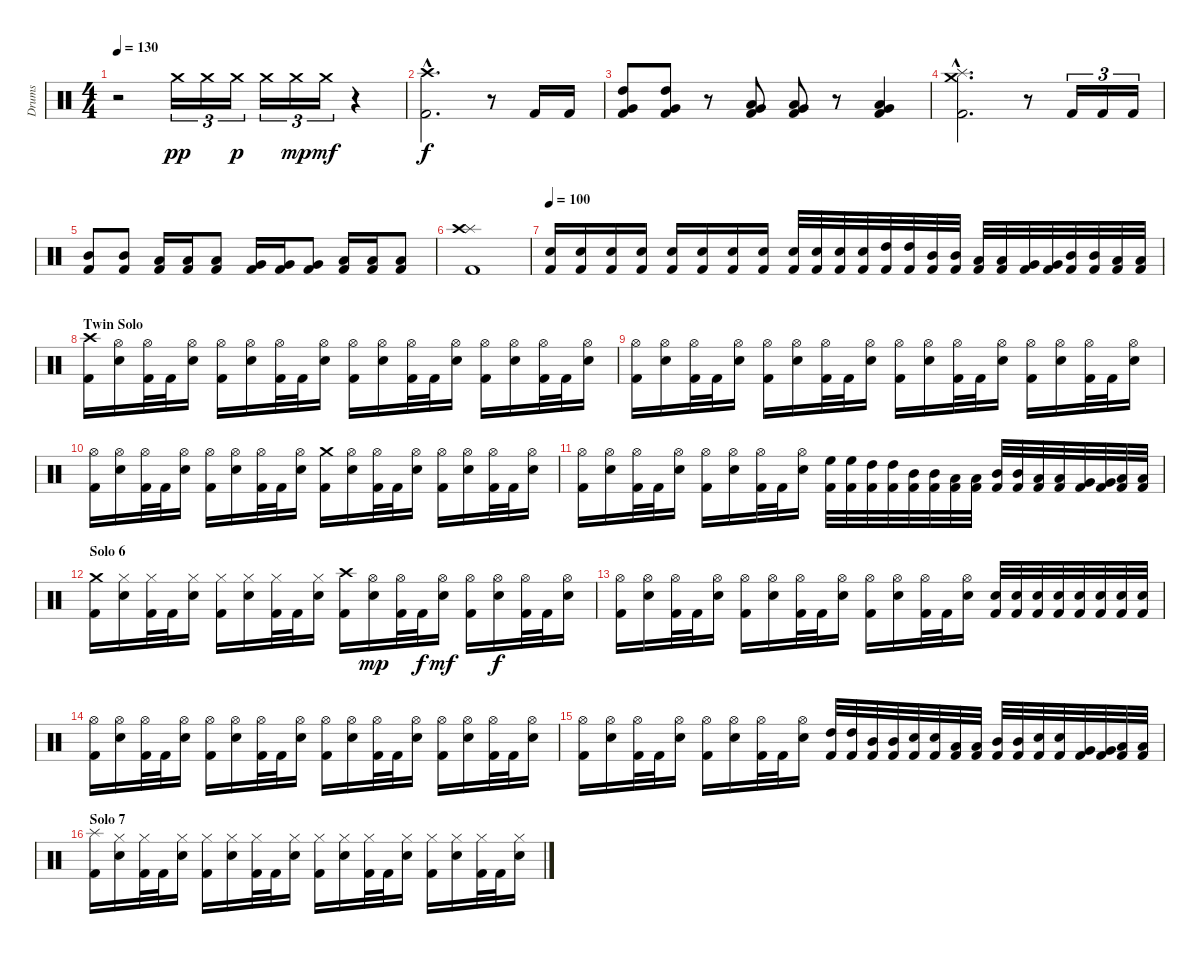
\track ("Drums" "Drums") {instrument percussion}
\staff {score}
\articulation defaults
\ts (4 4)
\tempo 130
\clef neutral
\ks c
r.2{dy f} "Crash medium (hit)".16{tu (3 2) dy pp} "Crash medium (hit)".16{tu (3 2)} "Crash medium (hit)".16{tu (3 2) dy p} "Crash medium (hit)".16{tu (3 2)} "Crash medium (hit)".16{tu (3 2) dy mp} "Crash medium (hit)".16{tu (3 2) dy mf} r.4 |
("Kick (hit) 2"{hac} "Crash high (hit)"{hac}).2{d dy f} r.8 "Kick (hit) 2".16 "Kick (hit) 2".16 |
("Kick (hit) 2" "Very Low Tom (hit)" "High Tom (hit)").8 ("Kick (hit) 2" "Very Low Tom (hit)" "High Tom (hit)").8 r.8 ("Kick (hit) 2" "Very Low Tom (hit)" "Low Tom (hit)").8 ("Kick (hit) 2" "Very Low Tom (hit)" "Low Tom (hit)").8 r.8 ("Kick (hit) 2" "Low Floor Tom (hit)" "Very Low Tom (hit)").4 |
("Kick (hit) 2"{hac} "Crash medium (hit)"{hac} "Splash (hit)"{hac}).2{d} r.8 "Kick (hit) 2".16{tu (3 2)} "Kick (hit) 2".16{tu (3 2)} "Kick (hit) 2".16{tu (3 2)} |
("Kick (hit) 2" "Mid Tom (hit)").8 ("Kick (hit) 2" "Mid Tom (hit)").8 ("Kick (hit) 2" "Low Tom (hit)").16 ("Kick (hit) 2" "Low Tom (hit)").16 ("Kick (hit) 2" "Low Tom (hit)").8 ("Kick (hit) 2" "Very Low Tom (hit)").16 ("Kick (hit) 2" "Very Low Tom (hit)").16 ("Kick (hit) 2" "Very Low Tom (hit)").8 ("Kick (hit) 2" "Low Floor Tom (hit)").16 ("Kick (hit) 2" "Low Floor Tom (hit)").16 ("Kick (hit) 2" "Low Floor Tom (hit)").8 |
("Kick (hit) 2" "Splash (hit)" "Crash high (hit)").1 |
\tempo 100
("Kick (hit) 2" "Snare (hit) 2").16 ("Kick (hit) 2" "Snare (hit) 2").16 ("Kick (hit) 2" "Snare (hit) 2").16 ("Kick (hit) 2" "Snare (hit) 2").16 ("Kick (hit) 2" "Snare (hit) 2").16 ("Kick (hit) 2" "Snare (hit) 2").16 ("Kick (hit) 2" "Snare (hit) 2").16 ("Kick (hit) 2" "Snare (hit) 2").16 ("Kick (hit) 2" "Snare (hit) 2").32 ("Kick (hit) 2" "Snare (hit) 2").32 ("Kick (hit) 2" "Snare (hit) 2").32 ("Kick (hit) 2" "Snare (hit) 2").32 ("Kick (hit) 2" "High Tom (hit)").32 ("Kick (hit) 2" "High Tom (hit)").32 ("Kick (hit) 2" "Mid Tom (hit)").32 ("Kick (hit) 2" "Mid Tom (hit)").32 ("Kick (hit) 2" "Low Tom (hit)").32 ("Kick (hit) 2" "Low Tom (hit)").32 ("Kick (hit) 2" "Very Low Tom (hit)").32 ("Kick (hit) 2" "Very Low Tom (hit)").32 ("Kick (hit) 2" "Mid Tom (hit)").32 ("Kick (hit) 2" "Mid Tom (hit)").32 ("Kick (hit) 2" "Low Tom (hit)").32 ("Kick (hit) 2" "Low Tom (hit)").32 |
\section ("" "Twin Solo")
("Kick (hit) 2" "Crash high (hit)").16 ("Snare (hit) 2" "Hi-Hat (open)").16 ("Kick (hit) 2" "Hi-Hat (open)").32 "Kick (hit) 2".32 ("Snare (hit) 2" "Hi-Hat (open)").16 ("Kick (hit) 2" "Hi-Hat (open)").16 ("Snare (hit) 2" "Hi-Hat (open)").16 ("Kick (hit) 2" "Hi-Hat (open)").32 "Kick (hit) 2".32 ("Snare (hit) 2" "Hi-Hat (open)").16 ("Kick (hit) 2" "Hi-Hat (open)").16 ("Snare (hit) 2" "Hi-Hat (open)").16 ("Kick (hit) 2" "Hi-Hat (open)").32 "Kick (hit) 2".32 ("Snare (hit) 2" "Hi-Hat (open)").16 ("Kick (hit) 2" "Hi-Hat (open)").16 ("Snare (hit) 2" "Hi-Hat (open)").16 ("Kick (hit) 2" "Hi-Hat (open)").32 "Kick (hit) 2".32 ("Snare (hit) 2" "Hi-Hat (open)").16 |
("Kick (hit) 2" "Hi-Hat (open)").16 ("Snare (hit) 2" "Hi-Hat (open)").16 ("Kick (hit) 2" "Hi-Hat (open)").32 "Kick (hit) 2".32 ("Snare (hit) 2" "Hi-Hat (open)").16 ("Kick (hit) 2" "Hi-Hat (open)").16 ("Snare (hit) 2" "Hi-Hat (open)").16 ("Kick (hit) 2" "Hi-Hat (open)").32 "Kick (hit) 2".32 ("Snare (hit) 2" "Hi-Hat (open)").16 ("Kick (hit) 2" "Hi-Hat (open)").16 ("Snare (hit) 2" "Hi-Hat (open)").16 ("Kick (hit) 2" "Hi-Hat (open)").32 "Kick (hit) 2".32 ("Snare (hit) 2" "Hi-Hat (open)").16 ("Kick (hit) 2" "Hi-Hat (open)").16 ("Snare (hit) 2" "Hi-Hat (open)").16 ("Kick (hit) 2" "Hi-Hat (open)").32 "Kick (hit) 2".32 ("Snare (hit) 2" "Hi-Hat (open)").16 |
("Kick (hit) 2" "Hi-Hat (open)").16 ("Snare (hit) 2" "Hi-Hat (open)").16 ("Kick (hit) 2" "Hi-Hat (open)").32 "Kick (hit) 2".32 ("Snare (hit) 2" "Hi-Hat (open)").16 ("Kick (hit) 2" "Hi-Hat (open)").16 ("Snare (hit) 2" "Hi-Hat (open)").16 ("Kick (hit) 2" "Hi-Hat (open)").32 "Kick (hit) 2".32 ("Snare (hit) 2" "Hi-Hat (open)").16 ("Kick (hit) 2" "Crash medium (hit)").16 ("Snare (hit) 2" "Hi-Hat (open)").16 ("Kick (hit) 2" "Hi-Hat (open)").32 "Kick (hit) 2".32 ("Snare (hit) 2" "Hi-Hat (open)").16 ("Kick (hit) 2" "Hi-Hat (open)").16 ("Snare (hit) 2" "Hi-Hat (open)").16 ("Kick (hit) 2" "Hi-Hat (open)").32 "Kick (hit) 2".32 ("Snare (hit) 2" "Hi-Hat (open)").16 |
("Kick (hit) 2" "Hi-Hat (open)").16 ("Snare (hit) 2" "Hi-Hat (open)").16 ("Kick (hit) 2" "Hi-Hat (open)").32 "Kick (hit) 2".32 ("Snare (hit) 2" "Hi-Hat (open)").16 ("Kick (hit) 2" "Hi-Hat (open)").16 ("Snare (hit) 2" "Hi-Hat (open)").16 ("Kick (hit) 2" "Hi-Hat (open)").32 "Kick (hit) 2".32 ("Snare (hit) 2" "Hi-Hat (open)").16 ("Kick (hit) 2" "High Floor Tom (hit)").32 ("Kick (hit) 2" "High Floor Tom (hit)").32 ("Kick (hit) 2" "High Tom (hit)").32 ("Kick (hit) 2" "High Tom (hit)").32 ("Kick (hit) 2" "Mid Tom (hit)").32 ("Kick (hit) 2" "Mid Tom (hit)").32 ("Kick (hit) 2" "Low Tom (hit)").32 ("Kick (hit) 2" "Low Tom (hit)").32 ("Kick (hit) 2" "Mid Tom (hit)").32 ("Kick (hit) 2" "Mid Tom (hit)").32 ("Kick (hit) 2" "Low Tom (hit)").32 ("Kick (hit) 2" "Low Tom (hit)").32 ("Kick (hit) 2" "Very Low Tom (hit)").32 ("Kick (hit) 2" "Very Low Tom (hit)").32 ("Kick (hit) 2" "Low Floor Tom (hit)").32 ("Kick (hit) 2" "Low Floor Tom (hit)").32 |
\section ("" "Solo 6")
("Kick (hit) 2" "Crash medium (hit)").16 ("Snare (hit) 2" "Hi-Hat (closed)").16 ("Kick (hit) 2" "Hi-Hat (closed)").32 "Kick (hit) 2".32 ("Snare (hit) 2" "Hi-Hat (closed)").16 ("Kick (hit) 2" "Hi-Hat (closed)").16 ("Snare (hit) 2" "Hi-Hat (closed)").16 ("Kick (hit) 2" "Hi-Hat (closed)").32 "Kick (hit) 2".32 ("Snare (hit) 2" "Hi-Hat (closed)").16 ("Kick (hit) 2" "Crash high (hit)").16 ("Snare (hit) 2" "Hi-Hat (open)").16{dy mp} ("Kick (hit) 2" "Hi-Hat (open)").32 "Kick (hit) 2".32{dy f} ("Snare (hit) 2" "Hi-Hat (open)").16{dy mf} ("Kick (hit) 2" "Hi-Hat (open)").16 ("Snare (hit) 2" "Hi-Hat (open)").16{dy f} ("Kick (hit) 2" "Hi-Hat (open)").32 "Kick (hit) 2".32 ("Snare (hit) 2" "Hi-Hat (open)").16 |
("Kick (hit) 2" "Hi-Hat (open)").16 ("Snare (hit) 2" "Hi-Hat (open)").16 ("Kick (hit) 2" "Hi-Hat (open)").32 "Kick (hit) 2".32 ("Snare (hit) 2" "Hi-Hat (open)").16 ("Kick (hit) 2" "Hi-Hat (open)").16 ("Snare (hit) 2" "Hi-Hat (open)").16 ("Kick (hit) 2" "Hi-Hat (open)").32 "Kick (hit) 2".32 ("Snare (hit) 2" "Hi-Hat (open)").16 ("Kick (hit) 2" "Hi-Hat (open)").16 ("Snare (hit) 2" "Hi-Hat (open)").16 ("Kick (hit) 2" "Hi-Hat (open)").32 "Kick (hit) 2".32 ("Snare (hit) 2" "Hi-Hat (open)").16 ("Kick (hit) 2" "Snare (hit) 2").32 ("Kick (hit) 2" "Snare (hit) 2").32 ("Kick (hit) 2" "Snare (hit) 2").32 ("Kick (hit) 2" "Snare (hit) 2").32 ("Kick (hit) 2" "Snare (hit) 2").32 ("Kick (hit) 2" "Snare (hit) 2").32 ("Kick (hit) 2" "Snare (hit) 2").32 ("Kick (hit) 2" "Snare (hit) 2").32 |
("Kick (hit) 2" "Hi-Hat (open)").16 ("Snare (hit) 2" "Hi-Hat (open)").16 ("Kick (hit) 2" "Hi-Hat (open)").32 "Kick (hit) 2".32 ("Snare (hit) 2" "Hi-Hat (open)").16 ("Kick (hit) 2" "Hi-Hat (open)").16 ("Snare (hit) 2" "Hi-Hat (open)").16 ("Kick (hit) 2" "Hi-Hat (open)").32 "Kick (hit) 2".32 ("Snare (hit) 2" "Hi-Hat (open)").16 ("Kick (hit) 2" "Hi-Hat (open)").16 ("Snare (hit) 2" "Hi-Hat (open)").16 ("Kick (hit) 2" "Hi-Hat (open)").32 "Kick (hit) 2".32 ("Snare (hit) 2" "Hi-Hat (open)").16 ("Kick (hit) 2" "Hi-Hat (open)").16 ("Snare (hit) 2" "Hi-Hat (open)").16 ("Kick (hit) 2" "Hi-Hat (open)").32 "Kick (hit) 2".32 ("Snare (hit) 2" "Hi-Hat (open)").16 |
("Kick (hit) 2" "Hi-Hat (open)").16 ("Snare (hit) 2" "Hi-Hat (open)").16 ("Kick (hit) 2" "Hi-Hat (open)").32 "Kick (hit) 2".32 ("Snare (hit) 2" "Hi-Hat (open)").16 ("Kick (hit) 2" "Hi-Hat (open)").16 ("Snare (hit) 2" "Hi-Hat (open)").16 ("Kick (hit) 2" "Hi-Hat (open)").32 "Kick (hit) 2".32 ("Snare (hit) 2" "Hi-Hat (open)").16 ("Kick (hit) 2" "High Tom (hit)").32 ("Kick (hit) 2" "High Tom (hit)").32 ("Kick (hit) 2" "Mid Tom (hit)").32 ("Kick (hit) 2" "Mid Tom (hit)").32 ("Kick (hit) 2" "Snare (hit) 2").32 ("Kick (hit) 2" "Snare (hit) 2").32 ("Kick (hit) 2" "Low Tom (hit)").32 ("Kick (hit) 2" "Low Tom (hit)").32 ("Kick (hit) 2" "Mid Tom (hit)").32 ("Kick (hit) 2" "Mid Tom (hit)").32 ("Kick (hit) 2" "Snare (hit) 2").32 ("Kick (hit) 2" "Snare (hit) 2").32 ("Kick (hit) 2" "Very Low Tom (hit)").32 ("Kick (hit) 2" "Very Low Tom (hit)").32 ("Kick (hit) 2" "Low Floor Tom (hit)").32 ("Kick (hit) 2" "Low Floor Tom (hit)").32 |
\section ("" "Solo 7")
("Kick (hit) 2" "Splash (hit)").16 ("Snare (hit) 2" "Hi-Hat (closed)").16 ("Kick (hit) 2" "Hi-Hat (closed)").32 "Kick (hit) 2".32 ("Snare (hit) 2" "Hi-Hat (closed)").16 ("Kick (hit) 2" "Hi-Hat (closed)").16 ("Snare (hit) 2" "Hi-Hat (closed)").16 ("Kick (hit) 2" "Hi-Hat (closed)").32 "Kick (hit) 2".32 ("Snare (hit) 2" "Hi-Hat (closed)").16 ("Kick (hit) 2" "Hi-Hat (closed)").16 ("Snare (hit) 2" "Hi-Hat (closed)").16 ("Kick (hit) 2" "Hi-Hat (closed)").32 "Kick (hit) 2".32 ("Snare (hit) 2" "Hi-Hat (closed)").16 ("Kick (hit) 2" "Hi-Hat (closed)").16 ("Snare (hit) 2" "Hi-Hat (closed)").16 ("Kick (hit) 2" "Hi-Hat (closed)").32 "Kick (hit) 2".32 ("Snare (hit) 2" "Hi-Hat (closed)").16
